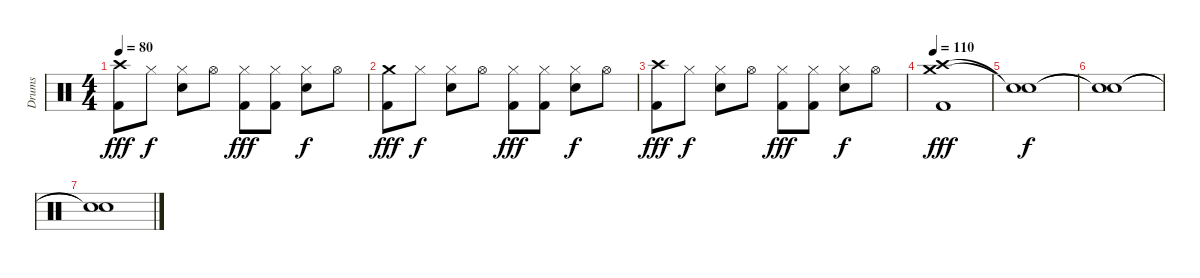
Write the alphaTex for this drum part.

\track ("Drums" "Drums") {instrument percussion}
\staff {score}
\articulation defaults
\ts (4 4)
\tempo 80
\clef neutral
\ks c
("Crash high (hit)" "Kick (hit) 2").8{dy fff} "Hi-Hat (closed)".8{dy f} ("Hi-Hat (closed)" "Snare (hit) 2").8 "Hi-Hat (open)".8 ("Hi-Hat (closed)" "Kick (hit) 2").8{dy fff} ("Hi-Hat (closed)" "Kick (hit) 2").8 ("Hi-Hat (closed)" "Snare (hit) 2").8{dy f} "Hi-Hat (open)".8 |
("Crash medium (hit)" "Kick (hit) 2").8{dy fff} "Hi-Hat (closed)".8{dy f} ("Hi-Hat (closed)" "Snare (hit) 2").8 "Hi-Hat (open)".8 ("Hi-Hat (closed)" "Kick (hit) 2").8{dy fff} ("Hi-Hat (closed)" "Kick (hit) 2").8 ("Hi-Hat (closed)" "Snare (hit) 2").8{dy f} "Hi-Hat (open)".8 |
("Crash high (hit)" "Kick (hit) 2").8{dy fff} "Hi-Hat (closed)".8{dy f} ("Hi-Hat (closed)" "Snare (hit) 2").8 "Hi-Hat (open)".8 ("Hi-Hat (closed)" "Kick (hit) 2").8{dy fff} ("Hi-Hat (closed)" "Kick (hit) 2").8 ("Hi-Hat (closed)" "Snare (hit) 2").8{dy f} "Hi-Hat (open)".8 |
\tempo 110
("Crash medium (hit)" "Crash high (hit)" "Kick (hit) 2").1{dy fff} |
("Snare (hit)"{t} "Snare (hit)"{t}).1{dy f} |
("Snare (hit)"{t} "Snare (hit)"{t}).1 |
("Snare (hit)"{t} "Snare (hit)"{t}).1
